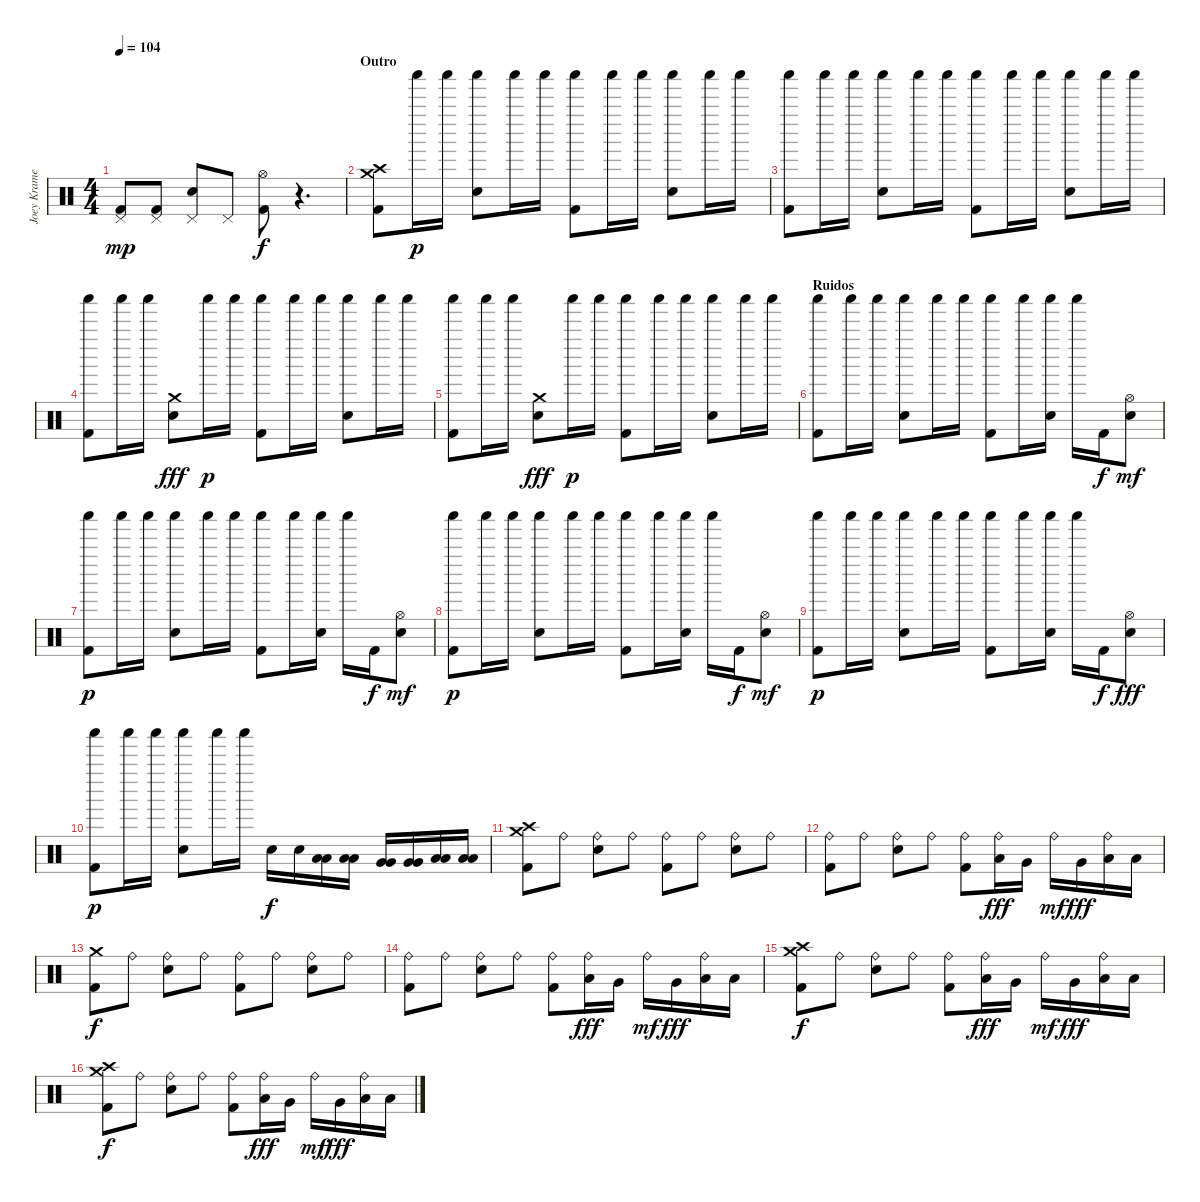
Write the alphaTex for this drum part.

\track ("Joey Kramer" "Joey Krame") {instrument percussion}
\staff {score}
\articulation defaults
\ts (4 4)
\tempo 104
\clef neutral
\ks c
("Pedal Hi-Hat (hit)" "Kick (hit) 2").8{dy mp} ("Pedal Hi-Hat (hit)" "Kick (hit) 2").8 ("Pedal Hi-Hat (hit)" "Snare (hit) 2").8 "Pedal Hi-Hat (hit)".8 ("Hi-Hat (open)" "Kick (hit) 2").8{dy f} r.4{d} |
\section ("" "Outro")
("Crash medium (hit)" "Crash high (hit)" "Kick (hit) 2").8 "Shaker (hit)".16{dy p} "Shaker (hit)".16 ("Shaker (hit)" "Snare (hit) 2").8 "Shaker (hit)".16 "Shaker (hit)".16 ("Shaker (hit)" "Kick (hit) 2").8 "Shaker (hit)".16 "Shaker (hit)".16 ("Shaker (hit)" "Snare (hit) 2").8 "Shaker (hit)".16 "Shaker (hit)".16 |
("Shaker (hit)" "Kick (hit) 2").8 "Shaker (hit)".16 "Shaker (hit)".16 ("Shaker (hit)" "Snare (hit) 2").8 "Shaker (hit)".16 "Shaker (hit)".16 ("Shaker (hit)" "Kick (hit) 2").8 "Shaker (hit)".16 "Shaker (hit)".16 ("Shaker (hit)" "Snare (hit) 2").8 "Shaker (hit)".16 "Shaker (hit)".16 |
("Shaker (hit)" "Kick (hit) 2").8 "Shaker (hit)".16 "Shaker (hit)".16 ("Crash medium (hit)" "Snare (hit) 2").8{dy fff} "Shaker (hit)".16{dy p} "Shaker (hit)".16 ("Shaker (hit)" "Kick (hit) 2").8 "Shaker (hit)".16 "Shaker (hit)".16 ("Shaker (hit)" "Snare (hit) 2").8 "Shaker (hit)".16 "Shaker (hit)".16 |
("Shaker (hit)" "Kick (hit) 2").8 "Shaker (hit)".16 "Shaker (hit)".16 ("Crash medium (hit)" "Snare (hit) 2").8{dy fff} "Shaker (hit)".16{dy p} "Shaker (hit)".16 ("Shaker (hit)" "Kick (hit) 2").8 "Shaker (hit)".16 "Shaker (hit)".16 ("Shaker (hit)" "Snare (hit) 2").8 "Shaker (hit)".16 "Shaker (hit)".16 |
\section ("" "Ruidos")
("Shaker (hit)" "Kick (hit) 2").8 "Shaker (hit)".16 "Shaker (hit)".16 ("Shaker (hit)" "Snare (hit) 2").8 "Shaker (hit)".16 "Shaker (hit)".16 ("Shaker (hit)" "Kick (hit) 2").8 "Shaker (hit)".16 ("Shaker (hit)" "Snare (hit) 2").16 "Shaker (hit)".16 "Kick (hit) 2".16{dy f} ("Hi-Hat (open)" "Snare (hit) 2").8{dy mf} |
("Shaker (hit)" "Kick (hit) 2").8{dy p} "Shaker (hit)".16 "Shaker (hit)".16 ("Shaker (hit)" "Snare (hit) 2").8 "Shaker (hit)".16 "Shaker (hit)".16 ("Shaker (hit)" "Kick (hit) 2").8 "Shaker (hit)".16 ("Shaker (hit)" "Snare (hit) 2").16 "Shaker (hit)".16 "Kick (hit) 2".16{dy f} ("Hi-Hat (open)" "Snare (hit) 2").8{dy mf} |
("Shaker (hit)" "Kick (hit) 2").8{dy p} "Shaker (hit)".16 "Shaker (hit)".16 ("Shaker (hit)" "Snare (hit) 2").8 "Shaker (hit)".16 "Shaker (hit)".16 ("Shaker (hit)" "Kick (hit) 2").8 "Shaker (hit)".16 ("Shaker (hit)" "Snare (hit) 2").16 "Shaker (hit)".16 "Kick (hit) 2".16{dy f} ("Hi-Hat (open)" "Snare (hit) 2").8{dy mf} |
("Shaker (hit)" "Kick (hit) 2").8{dy p} "Shaker (hit)".16 "Shaker (hit)".16 ("Shaker (hit)" "Snare (hit) 2").8 "Shaker (hit)".16 "Shaker (hit)".16 ("Shaker (hit)" "Kick (hit) 2").8 "Shaker (hit)".16 ("Shaker (hit)" "Snare (hit) 2").16 "Shaker (hit)".16 "Kick (hit) 2".16{dy f} ("Hi-Hat (open)" "Snare (hit) 2").8{dy fff} |
("Shaker (hit)" "Kick (hit) 2").8{dy p} "Shaker (hit)".16 "Shaker (hit)".16 ("Shaker (hit)" "Snare (hit) 2").8 "Shaker (hit)".16 "Shaker (hit)".16 "Snare (hit) 2".16{dy f} "Snare (hit) 2".16 ("Low Tom (hit)" "Low Tom (hit)").16 ("Low Tom (hit)" "Low Tom (hit)").16 ("Very Low Tom (hit)" "Very Low Tom (hit)").16 ("Very Low Tom (hit)" "Very Low Tom (hit)").16 ("Low Floor Tom (hit)" "Low Floor Tom (hit)").16 ("Low Floor Tom (hit)" "Low Floor Tom (hit)").16 |
("Crash high (hit)" "Crash medium (hit)" "Kick (hit) 2").8 "Ride (bell)".8 ("Ride (bell)" "Snare (hit) 2").8 "Ride (bell)".8 ("Ride (bell)" "Kick (hit) 2").8 "Ride (bell)".8 ("Ride (bell)" "Snare (hit) 2").8 "Ride (bell)".8 |
("Ride (bell)" "Kick (hit) 2").8 "Ride (bell)".8 ("Ride (bell)" "Snare (hit) 2").8 "Ride (bell)".8 ("Ride (bell)" "Kick (hit) 2").8 ("Ride (bell)" "Low Tom (hit)").16{dy fff} "Very Low Tom (hit)".16 "Ride (bell)".16{dy mf} "Very Low Tom (hit)".16{dy fff} ("Ride (bell)" "Low Floor Tom (hit)").16 "Low Floor Tom (hit)".16 |
("Crash medium (hit)" "Kick (hit) 2").8{dy f} "Ride (bell)".8 ("Ride (bell)" "Snare (hit) 2").8 "Ride (bell)".8 ("Ride (bell)" "Kick (hit) 2").8 "Ride (bell)".8 ("Ride (bell)" "Snare (hit) 2").8 "Ride (bell)".8 |
("Ride (bell)" "Kick (hit) 2").8 "Ride (bell)".8 ("Ride (bell)" "Snare (hit) 2").8 "Ride (bell)".8 ("Ride (bell)" "Kick (hit) 2").8 ("Ride (bell)" "Low Tom (hit)").16{dy fff} "Very Low Tom (hit)".16 "Ride (bell)".16{dy mf} "Very Low Tom (hit)".16{dy fff} ("Ride (bell)" "Low Floor Tom (hit)").16 "Low Floor Tom (hit)".16 |
("Crash high (hit)" "Crash medium (hit)" "Kick (hit) 2").8{dy f} "Ride (bell)".8 ("Ride (bell)" "Snare (hit) 2").8 "Ride (bell)".8 ("Ride (bell)" "Kick (hit) 2").8 ("Ride (bell)" "Low Tom (hit)").16{dy fff} "Very Low Tom (hit)".16 "Ride (bell)".16{dy mf} "Very Low Tom (hit)".16{dy fff} ("Ride (bell)" "Low Floor Tom (hit)").16 "Low Floor Tom (hit)".16 |
("Crash high (hit)" "Crash medium (hit)" "Kick (hit) 2").8{dy f} "Ride (bell)".8 ("Ride (bell)" "Snare (hit) 2").8 "Ride (bell)".8 ("Ride (bell)" "Kick (hit) 2").8 ("Ride (bell)" "Low Tom (hit)").16{dy fff} "Very Low Tom (hit)".16 "Ride (bell)".16{dy mf} "Very Low Tom (hit)".16{dy fff} ("Ride (bell)" "Low Floor Tom (hit)").16 "Low Floor Tom (hit)".16
